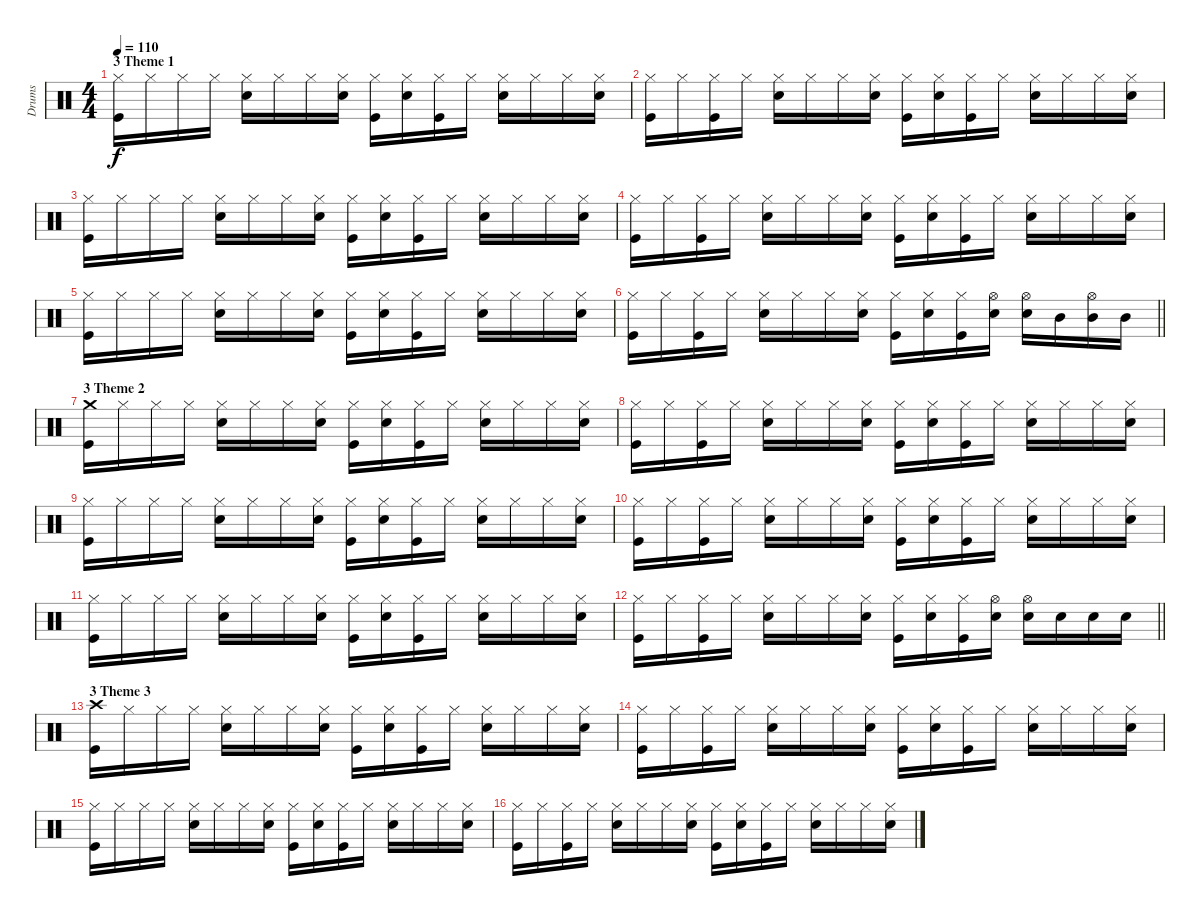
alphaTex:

\track ("Drums" "Drums") {instrument percussion}
\staff {score}
\articulation defaults
\ts (4 4)
\section ("" "3 Theme 1")
\tempo 110
\clef neutral
\ks c
("Kick (hit)" "Hi-Hat (closed)").16{dy f} "Hi-Hat (closed)".16 "Hi-Hat (closed)".16 "Hi-Hat (closed)".16 ("Hi-Hat (closed)" "Electric Snare (hit)").16 "Hi-Hat (closed)".16 "Hi-Hat (closed)".16 ("Hi-Hat (closed)" "Electric Snare (hit)").16 ("Kick (hit)" "Hi-Hat (closed)").16 ("Hi-Hat (closed)" "Electric Snare (hit)").16 ("Kick (hit)" "Hi-Hat (closed)").16 "Hi-Hat (closed)".16 ("Hi-Hat (closed)" "Electric Snare (hit)").16 "Hi-Hat (closed)".16 "Hi-Hat (closed)".16 ("Hi-Hat (closed)" "Electric Snare (hit)").16 |
("Kick (hit)" "Hi-Hat (closed)").16 "Hi-Hat (closed)".16 ("Kick (hit)" "Hi-Hat (closed)").16 "Hi-Hat (closed)".16 ("Hi-Hat (closed)" "Electric Snare (hit)").16 "Hi-Hat (closed)".16 "Hi-Hat (closed)".16 ("Hi-Hat (closed)" "Electric Snare (hit)").16 ("Kick (hit)" "Hi-Hat (closed)").16 ("Hi-Hat (closed)" "Electric Snare (hit)").16 ("Kick (hit)" "Hi-Hat (closed)").16 "Hi-Hat (closed)".16 ("Hi-Hat (closed)" "Electric Snare (hit)").16 "Hi-Hat (closed)".16 "Hi-Hat (closed)".16 ("Hi-Hat (closed)" "Electric Snare (hit)").16 |
("Kick (hit)" "Hi-Hat (closed)").16 "Hi-Hat (closed)".16 "Hi-Hat (closed)".16 "Hi-Hat (closed)".16 ("Hi-Hat (closed)" "Electric Snare (hit)").16 "Hi-Hat (closed)".16 "Hi-Hat (closed)".16 ("Hi-Hat (closed)" "Electric Snare (hit)").16 ("Kick (hit)" "Hi-Hat (closed)").16 ("Hi-Hat (closed)" "Electric Snare (hit)").16 ("Kick (hit)" "Hi-Hat (closed)").16 "Hi-Hat (closed)".16 ("Hi-Hat (closed)" "Electric Snare (hit)").16 "Hi-Hat (closed)".16 "Hi-Hat (closed)".16 ("Hi-Hat (closed)" "Electric Snare (hit)").16 |
("Kick (hit)" "Hi-Hat (closed)").16 "Hi-Hat (closed)".16 ("Kick (hit)" "Hi-Hat (closed)").16 "Hi-Hat (closed)".16 ("Hi-Hat (closed)" "Electric Snare (hit)").16 "Hi-Hat (closed)".16 "Hi-Hat (closed)".16 ("Hi-Hat (closed)" "Electric Snare (hit)").16 ("Kick (hit)" "Hi-Hat (closed)").16 ("Hi-Hat (closed)" "Electric Snare (hit)").16 ("Kick (hit)" "Hi-Hat (closed)").16 "Hi-Hat (closed)".16 ("Hi-Hat (closed)" "Electric Snare (hit)").16 "Hi-Hat (closed)".16 "Hi-Hat (closed)".16 ("Hi-Hat (closed)" "Electric Snare (hit)").16 |
("Kick (hit)" "Hi-Hat (closed)").16 "Hi-Hat (closed)".16 "Hi-Hat (closed)".16 "Hi-Hat (closed)".16 ("Hi-Hat (closed)" "Electric Snare (hit)").16 "Hi-Hat (closed)".16 "Hi-Hat (closed)".16 ("Hi-Hat (closed)" "Electric Snare (hit)").16 ("Kick (hit)" "Hi-Hat (closed)").16 ("Hi-Hat (closed)" "Electric Snare (hit)").16 ("Kick (hit)" "Hi-Hat (closed)").16 "Hi-Hat (closed)".16 ("Hi-Hat (closed)" "Electric Snare (hit)").16 "Hi-Hat (closed)".16 "Hi-Hat (closed)".16 ("Hi-Hat (closed)" "Electric Snare (hit)").16 |
\barLineRight lightlight
("Kick (hit)" "Hi-Hat (closed)").16 "Hi-Hat (closed)".16 ("Kick (hit)" "Hi-Hat (closed)").16 "Hi-Hat (closed)".16 ("Hi-Hat (closed)" "Electric Snare (hit)").16 "Hi-Hat (closed)".16 "Hi-Hat (closed)".16 ("Hi-Hat (closed)" "Electric Snare (hit)").16 ("Kick (hit)" "Hi-Hat (closed)").16 ("Hi-Hat (closed)" "Electric Snare (hit)").16 ("Kick (hit)" "Hi-Hat (closed)").16 ("Hi-Hat (open)" "Electric Snare (hit)").16 ("Hi-Hat (open)" "Electric Snare (hit)").16 "Mid Tom (hit)".16 ("Hi-Hat (open)" "Mid Tom (hit)").16 "Mid Tom (hit)".16 |
\section ("" "3 Theme 2")
("Kick (hit)" "Crash medium (hit)").16 "Hi-Hat (closed)".16 "Hi-Hat (closed)".16 "Hi-Hat (closed)".16 ("Hi-Hat (closed)" "Electric Snare (hit)").16 "Hi-Hat (closed)".16 "Hi-Hat (closed)".16 ("Hi-Hat (closed)" "Electric Snare (hit)").16 ("Kick (hit)" "Hi-Hat (closed)").16 ("Hi-Hat (closed)" "Electric Snare (hit)").16 ("Kick (hit)" "Hi-Hat (closed)").16 "Hi-Hat (closed)".16 ("Hi-Hat (closed)" "Electric Snare (hit)").16 "Hi-Hat (closed)".16 "Hi-Hat (closed)".16 ("Hi-Hat (closed)" "Electric Snare (hit)").16 |
("Kick (hit)" "Hi-Hat (closed)").16 "Hi-Hat (closed)".16 ("Kick (hit)" "Hi-Hat (closed)").16 "Hi-Hat (closed)".16 ("Hi-Hat (closed)" "Electric Snare (hit)").16 "Hi-Hat (closed)".16 "Hi-Hat (closed)".16 ("Hi-Hat (closed)" "Electric Snare (hit)").16 ("Kick (hit)" "Hi-Hat (closed)").16 ("Hi-Hat (closed)" "Electric Snare (hit)").16 ("Kick (hit)" "Hi-Hat (closed)").16 "Hi-Hat (closed)".16 ("Hi-Hat (closed)" "Electric Snare (hit)").16 "Hi-Hat (closed)".16 "Hi-Hat (closed)".16 ("Hi-Hat (closed)" "Electric Snare (hit)").16 |
("Kick (hit)" "Hi-Hat (closed)").16 "Hi-Hat (closed)".16 "Hi-Hat (closed)".16 "Hi-Hat (closed)".16 ("Hi-Hat (closed)" "Electric Snare (hit)").16 "Hi-Hat (closed)".16 "Hi-Hat (closed)".16 ("Hi-Hat (closed)" "Electric Snare (hit)").16 ("Kick (hit)" "Hi-Hat (closed)").16 ("Hi-Hat (closed)" "Electric Snare (hit)").16 ("Kick (hit)" "Hi-Hat (closed)").16 "Hi-Hat (closed)".16 ("Hi-Hat (closed)" "Electric Snare (hit)").16 "Hi-Hat (closed)".16 "Hi-Hat (closed)".16 ("Hi-Hat (closed)" "Electric Snare (hit)").16 |
("Kick (hit)" "Hi-Hat (closed)").16 "Hi-Hat (closed)".16 ("Kick (hit)" "Hi-Hat (closed)").16 "Hi-Hat (closed)".16 ("Hi-Hat (closed)" "Electric Snare (hit)").16 "Hi-Hat (closed)".16 "Hi-Hat (closed)".16 ("Hi-Hat (closed)" "Electric Snare (hit)").16 ("Kick (hit)" "Hi-Hat (closed)").16 ("Hi-Hat (closed)" "Electric Snare (hit)").16 ("Kick (hit)" "Hi-Hat (closed)").16 "Hi-Hat (closed)".16 ("Hi-Hat (closed)" "Electric Snare (hit)").16 "Hi-Hat (closed)".16 "Hi-Hat (closed)".16 ("Hi-Hat (closed)" "Electric Snare (hit)").16 |
("Kick (hit)" "Hi-Hat (closed)").16 "Hi-Hat (closed)".16 "Hi-Hat (closed)".16 "Hi-Hat (closed)".16 ("Hi-Hat (closed)" "Electric Snare (hit)").16 "Hi-Hat (closed)".16 "Hi-Hat (closed)".16 ("Hi-Hat (closed)" "Electric Snare (hit)").16 ("Kick (hit)" "Hi-Hat (closed)").16 ("Hi-Hat (closed)" "Electric Snare (hit)").16 ("Kick (hit)" "Hi-Hat (closed)").16 "Hi-Hat (closed)".16 ("Hi-Hat (closed)" "Electric Snare (hit)").16 "Hi-Hat (closed)".16 "Hi-Hat (closed)".16 ("Hi-Hat (closed)" "Electric Snare (hit)").16 |
\barLineRight lightlight
("Kick (hit)" "Hi-Hat (closed)").16 "Hi-Hat (closed)".16 ("Kick (hit)" "Hi-Hat (closed)").16 "Hi-Hat (closed)".16 ("Hi-Hat (closed)" "Electric Snare (hit)").16 "Hi-Hat (closed)".16 "Hi-Hat (closed)".16 ("Hi-Hat (closed)" "Electric Snare (hit)").16 ("Kick (hit)" "Hi-Hat (closed)").16 ("Hi-Hat (closed)" "Electric Snare (hit)").16 ("Kick (hit)" "Hi-Hat (closed)").16 ("Hi-Hat (open)" "Electric Snare (hit)").16 ("Hi-Hat (open)" "Electric Snare (hit)").16 "Electric Snare (hit)".16 "Electric Snare (hit)".16 "Electric Snare (hit)".16 |
\section ("" "3 Theme 3")
("Kick (hit)" "Crash high (hit)").16 "Hi-Hat (closed)".16 "Hi-Hat (closed)".16 "Hi-Hat (closed)".16 ("Hi-Hat (closed)" "Electric Snare (hit)").16 "Hi-Hat (closed)".16 "Hi-Hat (closed)".16 ("Hi-Hat (closed)" "Electric Snare (hit)").16 ("Kick (hit)" "Hi-Hat (closed)").16 ("Hi-Hat (closed)" "Electric Snare (hit)").16 ("Kick (hit)" "Hi-Hat (closed)").16 "Hi-Hat (closed)".16 ("Hi-Hat (closed)" "Electric Snare (hit)").16 "Hi-Hat (closed)".16 "Hi-Hat (closed)".16 ("Hi-Hat (closed)" "Electric Snare (hit)").16 |
("Kick (hit)" "Hi-Hat (closed)").16 "Hi-Hat (closed)".16 ("Kick (hit)" "Hi-Hat (closed)").16 "Hi-Hat (closed)".16 ("Hi-Hat (closed)" "Electric Snare (hit)").16 "Hi-Hat (closed)".16 "Hi-Hat (closed)".16 ("Hi-Hat (closed)" "Electric Snare (hit)").16 ("Kick (hit)" "Hi-Hat (closed)").16 ("Hi-Hat (closed)" "Electric Snare (hit)").16 ("Kick (hit)" "Hi-Hat (closed)").16 "Hi-Hat (closed)".16 ("Hi-Hat (closed)" "Electric Snare (hit)").16 "Hi-Hat (closed)".16 "Hi-Hat (closed)".16 ("Hi-Hat (closed)" "Electric Snare (hit)").16 |
("Kick (hit)" "Hi-Hat (closed)").16 "Hi-Hat (closed)".16 "Hi-Hat (closed)".16 "Hi-Hat (closed)".16 ("Hi-Hat (closed)" "Electric Snare (hit)").16 "Hi-Hat (closed)".16 "Hi-Hat (closed)".16 ("Hi-Hat (closed)" "Electric Snare (hit)").16 ("Kick (hit)" "Hi-Hat (closed)").16 ("Hi-Hat (closed)" "Electric Snare (hit)").16 ("Kick (hit)" "Hi-Hat (closed)").16 "Hi-Hat (closed)".16 ("Hi-Hat (closed)" "Electric Snare (hit)").16 "Hi-Hat (closed)".16 "Hi-Hat (closed)".16 ("Hi-Hat (closed)" "Electric Snare (hit)").16 |
("Kick (hit)" "Hi-Hat (closed)").16 "Hi-Hat (closed)".16 ("Kick (hit)" "Hi-Hat (closed)").16 "Hi-Hat (closed)".16 ("Hi-Hat (closed)" "Electric Snare (hit)").16 "Hi-Hat (closed)".16 "Hi-Hat (closed)".16 ("Hi-Hat (closed)" "Electric Snare (hit)").16 ("Kick (hit)" "Hi-Hat (closed)").16 ("Hi-Hat (closed)" "Electric Snare (hit)").16 ("Kick (hit)" "Hi-Hat (closed)").16 "Hi-Hat (closed)".16 ("Hi-Hat (closed)" "Electric Snare (hit)").16 "Hi-Hat (closed)".16 "Hi-Hat (closed)".16 ("Hi-Hat (closed)" "Electric Snare (hit)").16
